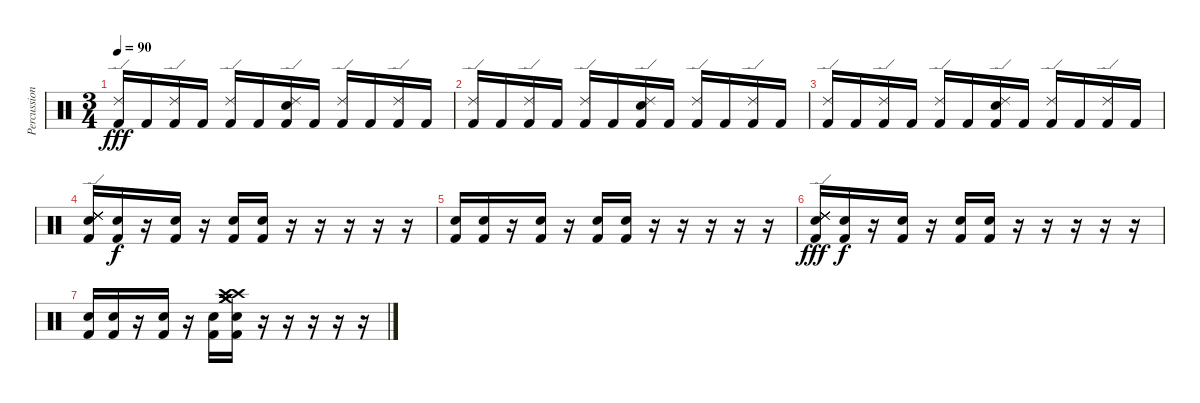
\track ("Percussioni" "Percussion") {instrument percussion}
\staff {score}
\articulation defaults
\ts (3 4)
\tempo 90
\clef neutral
\ks c
("Kick (hit) 2" "Ride (edge) 2").16{dy fff} "Kick (hit) 2".16 ("Kick (hit) 2" "Ride (edge) 2").16 "Kick (hit) 2".16 ("Kick (hit) 2" "Ride (edge) 2").16 "Kick (hit) 2".16 ("Kick (hit) 2" "Snare (hit) 2" "Ride (edge) 2").16 "Kick (hit) 2".16 ("Kick (hit) 2" "Ride (edge) 2").16 "Kick (hit) 2".16 ("Kick (hit) 2" "Ride (edge) 2").16 "Kick (hit) 2".16 |
("Kick (hit) 2" "Ride (edge) 2").16 "Kick (hit) 2".16 ("Kick (hit) 2" "Ride (edge) 2").16 "Kick (hit) 2".16 ("Kick (hit) 2" "Ride (edge) 2").16 "Kick (hit) 2".16 ("Kick (hit) 2" "Snare (hit) 2" "Ride (edge) 2").16 "Kick (hit) 2".16 ("Kick (hit) 2" "Ride (edge) 2").16 "Kick (hit) 2".16 ("Kick (hit) 2" "Ride (edge) 2").16 "Kick (hit) 2".16 |
("Kick (hit) 2" "Ride (edge) 2").16 "Kick (hit) 2".16 ("Kick (hit) 2" "Ride (edge) 2").16 "Kick (hit) 2".16 ("Kick (hit) 2" "Ride (edge) 2").16 "Kick (hit) 2".16 ("Kick (hit) 2" "Snare (hit) 2" "Ride (edge) 2").16 "Kick (hit) 2".16 ("Kick (hit) 2" "Ride (edge) 2").16 "Kick (hit) 2".16 ("Kick (hit) 2" "Ride (edge) 2").16 "Kick (hit) 2".16 |
("Kick (hit) 2" "Snare (hit) 2" "Ride (edge) 2" "Ride (edge) 2" "Ride (edge) 2" "Ride (edge) 2").16 ("Kick (hit) 2" "Snare (hit) 2").16{dy f} r.16 ("Kick (hit) 2" "Snare (hit) 2").16 r.16 ("Kick (hit) 2" "Snare (hit) 2").16 ("Kick (hit) 2" "Snare (hit) 2").16 r.16 r.16 r.16 r.16 r.16 |
("Kick (hit) 2" "Snare (hit) 2").16 ("Kick (hit) 2" "Snare (hit) 2").16 r.16 ("Kick (hit) 2" "Snare (hit) 2").16 r.16 ("Kick (hit) 2" "Snare (hit) 2").16 ("Kick (hit) 2" "Snare (hit) 2").16 r.16 r.16 r.16 r.16 r.16 |
("Kick (hit) 2" "Snare (hit) 2" "Ride (edge) 2" "Ride (edge) 2" "Ride (edge) 2" "Ride (edge) 2").16{dy fff} ("Kick (hit) 2" "Snare (hit) 2").16{dy f} r.16 ("Kick (hit) 2" "Snare (hit) 2").16 r.16 ("Kick (hit) 2" "Snare (hit) 2").16 ("Kick (hit) 2" "Snare (hit) 2").16 r.16 r.16 r.16 r.16 r.16 |
("Kick (hit) 2" "Snare (hit) 2").16 ("Kick (hit) 2" "Snare (hit) 2").16 r.16 ("Kick (hit) 2" "Snare (hit) 2").16 r.16 ("Kick (hit) 2" "Snare (hit) 2").16 ("Kick (hit) 2" "Snare (hit) 2" "Crash medium (hit)" "Crash high (hit)" "Crash medium (hit)" "Crash high (hit)").16 r.16 r.16 r.16 r.16 r.16
